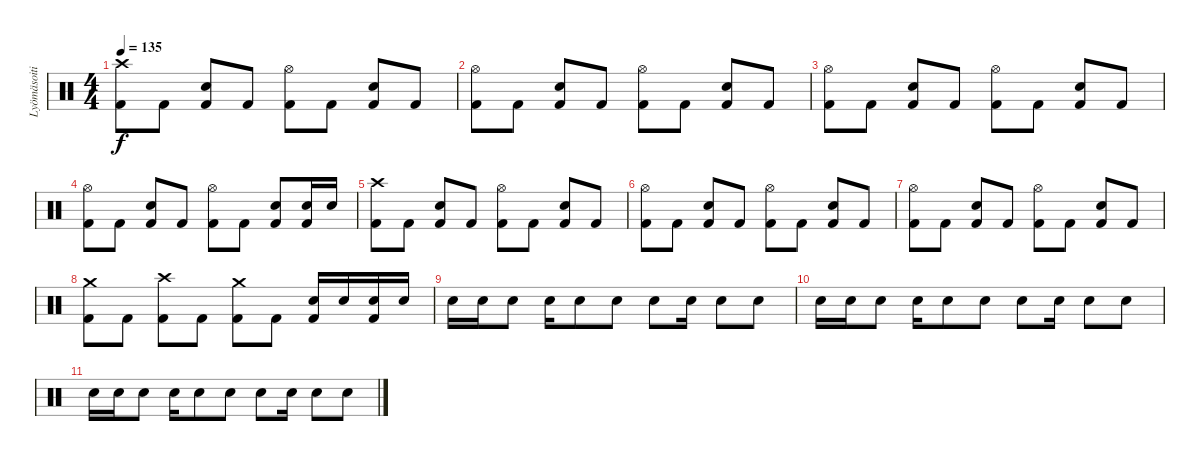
\track ("Lyömäsoitin" "Lyömäsoiti") {instrument percussion}
\staff {score}
\articulation defaults
\ts (4 4)
\tempo 135
\clef neutral
\ks c
("Crash high (hit)" "Kick (hit) 2").8{dy f} "Kick (hit) 2".8 ("Electric Snare (hit)" "Kick (hit) 2").8 "Kick (hit) 2".8 ("Hi-Hat (open)" "Kick (hit) 2").8 "Kick (hit) 2".8 ("Electric Snare (hit)" "Kick (hit) 2").8 "Kick (hit) 2".8 |
("Hi-Hat (open)" "Kick (hit) 2").8 "Kick (hit) 2".8 ("Electric Snare (hit)" "Kick (hit) 2").8 "Kick (hit) 2".8 ("Hi-Hat (open)" "Kick (hit) 2").8 "Kick (hit) 2".8 ("Electric Snare (hit)" "Kick (hit) 2").8 "Kick (hit) 2".8 |
("Hi-Hat (open)" "Kick (hit) 2").8 "Kick (hit) 2".8 ("Electric Snare (hit)" "Kick (hit) 2").8 "Kick (hit) 2".8 ("Hi-Hat (open)" "Kick (hit) 2").8 "Kick (hit) 2".8 ("Electric Snare (hit)" "Kick (hit) 2").8 "Kick (hit) 2".8 |
("Hi-Hat (open)" "Kick (hit) 2").8 "Kick (hit) 2".8 ("Electric Snare (hit)" "Kick (hit) 2").8 "Kick (hit) 2".8 ("Hi-Hat (open)" "Kick (hit) 2").8 "Kick (hit) 2".8 ("Electric Snare (hit)" "Kick (hit) 2").8 ("Electric Snare (hit)" "Kick (hit) 2").16 "Electric Snare (hit)".16 |
("Crash high (hit)" "Kick (hit) 2").8 "Kick (hit) 2".8 ("Electric Snare (hit)" "Kick (hit) 2").8 "Kick (hit) 2".8 ("Hi-Hat (open)" "Kick (hit) 2").8 "Kick (hit) 2".8 ("Electric Snare (hit)" "Kick (hit) 2").8 "Kick (hit) 2".8 |
("Hi-Hat (open)" "Kick (hit) 2").8 "Kick (hit) 2".8 ("Electric Snare (hit)" "Kick (hit) 2").8 "Kick (hit) 2".8 ("Hi-Hat (open)" "Kick (hit) 2").8 "Kick (hit) 2".8 ("Electric Snare (hit)" "Kick (hit) 2").8 "Kick (hit) 2".8 |
("Hi-Hat (open)" "Kick (hit) 2").8 "Kick (hit) 2".8 ("Electric Snare (hit)" "Kick (hit) 2").8 "Kick (hit) 2".8 ("Hi-Hat (open)" "Kick (hit) 2").8 "Kick (hit) 2".8 ("Electric Snare (hit)" "Kick (hit) 2").8 "Kick (hit) 2".8 |
("Crash medium (hit)" "Kick (hit) 2").8 "Kick (hit) 2".8 ("Crash high (hit)" "Kick (hit) 2").8 "Kick (hit) 2".8 ("Crash medium (hit)" "Kick (hit) 2").8 "Kick (hit) 2".8 ("Electric Snare (hit)" "Kick (hit) 2").16 "Electric Snare (hit)".16 ("Electric Snare (hit)" "Kick (hit) 2").16 "Electric Snare (hit)".16 |
"Electric Snare (hit)".16 "Electric Snare (hit)".16 "Electric Snare (hit)".8 "Electric Snare (hit)".16 "Electric Snare (hit)".8 "Electric Snare (hit)".8 "Electric Snare (hit)".8 "Electric Snare (hit)".16 "Electric Snare (hit)".8 "Electric Snare (hit)".8 |
"Electric Snare (hit)".16 "Electric Snare (hit)".16 "Electric Snare (hit)".8 "Electric Snare (hit)".16 "Electric Snare (hit)".8 "Electric Snare (hit)".8 "Electric Snare (hit)".8 "Electric Snare (hit)".16 "Electric Snare (hit)".8 "Electric Snare (hit)".8 |
"Electric Snare (hit)".16 "Electric Snare (hit)".16 "Electric Snare (hit)".8 "Electric Snare (hit)".16 "Electric Snare (hit)".8 "Electric Snare (hit)".8 "Electric Snare (hit)".8 "Electric Snare (hit)".16 "Electric Snare (hit)".8 "Electric Snare (hit)".8
